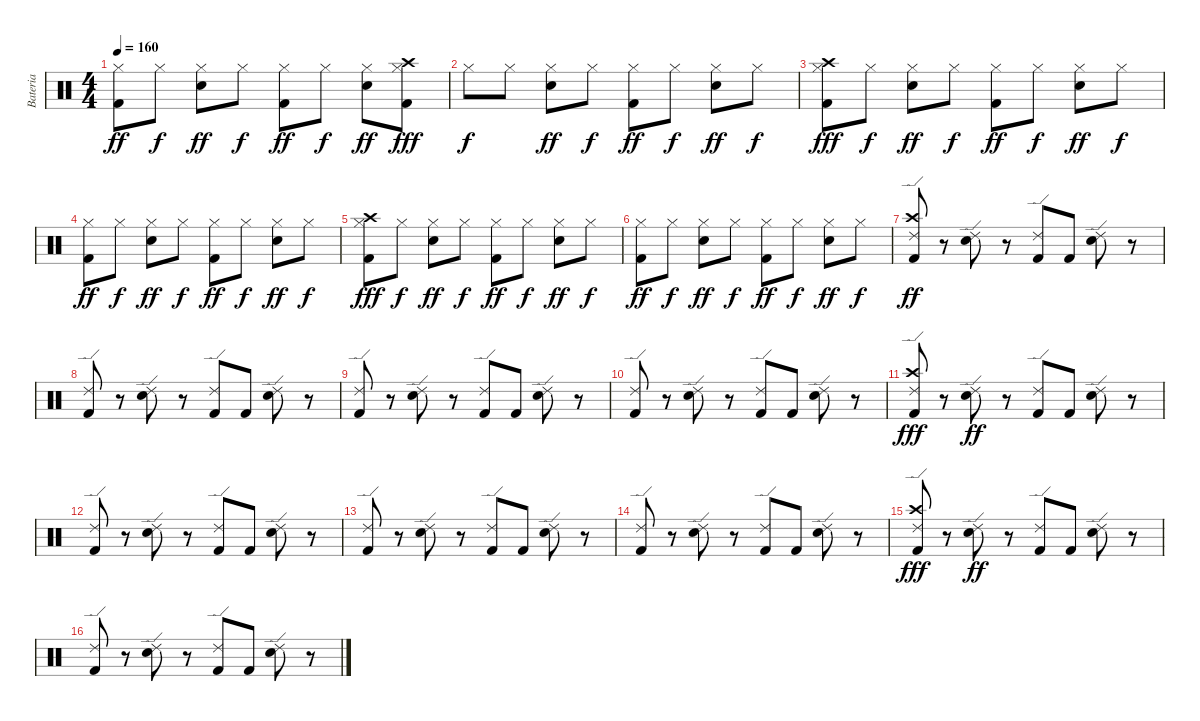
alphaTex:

\track ("Bateria" "Bateria") {instrument percussion}
\staff {score}
\articulation defaults
\ts (4 4)
\tempo 160
\clef neutral
\ks c
("Kick (hit) 2" "Hi-Hat (closed)").8{dy ff} "Hi-Hat (closed)".8{dy f} ("Hi-Hat (closed)" "Snare (hit) 2").8{dy ff} "Hi-Hat (closed)".8{dy f} ("Kick (hit) 2" "Hi-Hat (closed)").8{dy ff} "Hi-Hat (closed)".8{dy f} ("Hi-Hat (closed)" "Snare (hit) 2").8{dy ff} ("Kick (hit) 2" "Crash high (hit)" "Hi-Hat (closed)").8{dy fff} |
"Hi-Hat (closed)".8{dy f} "Hi-Hat (closed)".8 ("Hi-Hat (closed)" "Snare (hit) 2").8{dy ff} "Hi-Hat (closed)".8{dy f} ("Kick (hit) 2" "Hi-Hat (closed)").8{dy ff} "Hi-Hat (closed)".8{dy f} ("Hi-Hat (closed)" "Snare (hit) 2").8{dy ff} "Hi-Hat (closed)".8{dy f} |
("Kick (hit) 2" "Crash high (hit)" "Hi-Hat (closed)").8{dy fff} "Hi-Hat (closed)".8{dy f} ("Hi-Hat (closed)" "Snare (hit) 2").8{dy ff} "Hi-Hat (closed)".8{dy f} ("Kick (hit) 2" "Hi-Hat (closed)").8{dy ff} "Hi-Hat (closed)".8{dy f} ("Hi-Hat (closed)" "Snare (hit) 2").8{dy ff} "Hi-Hat (closed)".8{dy f} |
("Kick (hit) 2" "Hi-Hat (closed)").8{dy ff} "Hi-Hat (closed)".8{dy f} ("Hi-Hat (closed)" "Snare (hit) 2").8{dy ff} "Hi-Hat (closed)".8{dy f} ("Kick (hit) 2" "Hi-Hat (closed)").8{dy ff} "Hi-Hat (closed)".8{dy f} ("Hi-Hat (closed)" "Snare (hit) 2").8{dy ff} "Hi-Hat (closed)".8{dy f} |
("Kick (hit) 2" "Crash high (hit)" "Hi-Hat (closed)").8{dy fff} "Hi-Hat (closed)".8{dy f} ("Hi-Hat (closed)" "Snare (hit) 2").8{dy ff} "Hi-Hat (closed)".8{dy f} ("Kick (hit) 2" "Hi-Hat (closed)").8{dy ff} "Hi-Hat (closed)".8{dy f} ("Hi-Hat (closed)" "Snare (hit) 2").8{dy ff} "Hi-Hat (closed)".8{dy f} |
("Kick (hit) 2" "Hi-Hat (closed)").8{dy ff} "Hi-Hat (closed)".8{dy f} ("Hi-Hat (closed)" "Snare (hit) 2").8{dy ff} "Hi-Hat (closed)".8{dy f} ("Kick (hit) 2" "Hi-Hat (closed)").8{dy ff} "Hi-Hat (closed)".8{dy f} ("Hi-Hat (closed)" "Snare (hit) 2").8{dy ff} "Hi-Hat (closed)".8{dy f} |
("Crash high (hit)" "Ride (edge) 2" "Kick (hit) 2").8{dy ff} r.8 ("Ride (edge) 2" "Snare (hit) 2").8 r.8 ("Ride (edge) 2" "Kick (hit) 2").8 "Kick (hit) 2".8 ("Ride (edge) 2" "Snare (hit) 2").8 r.8 |
("Ride (edge) 2" "Kick (hit) 2").8 r.8 ("Ride (edge) 2" "Snare (hit) 2").8 r.8 ("Ride (edge) 2" "Kick (hit) 2").8 "Kick (hit) 2".8 ("Ride (edge) 2" "Snare (hit) 2").8 r.8 |
("Ride (edge) 2" "Kick (hit) 2").8 r.8 ("Ride (edge) 2" "Snare (hit) 2").8 r.8 ("Ride (edge) 2" "Kick (hit) 2").8 "Kick (hit) 2".8 ("Ride (edge) 2" "Snare (hit) 2").8 r.8 |
("Ride (edge) 2" "Kick (hit) 2").8 r.8 ("Ride (edge) 2" "Snare (hit) 2").8 r.8 ("Ride (edge) 2" "Kick (hit) 2").8 "Kick (hit) 2".8 ("Ride (edge) 2" "Snare (hit) 2").8 r.8 |
("Kick (hit) 2" "Ride (edge) 2" "Crash high (hit)").8{dy fff} r.8 ("Ride (edge) 2" "Snare (hit) 2").8{dy ff} r.8 ("Ride (edge) 2" "Kick (hit) 2").8 "Kick (hit) 2".8 ("Ride (edge) 2" "Snare (hit) 2").8 r.8 |
("Ride (edge) 2" "Kick (hit) 2").8 r.8 ("Ride (edge) 2" "Snare (hit) 2").8 r.8 ("Ride (edge) 2" "Kick (hit) 2").8 "Kick (hit) 2".8 ("Ride (edge) 2" "Snare (hit) 2").8 r.8 |
("Ride (edge) 2" "Kick (hit) 2").8 r.8 ("Ride (edge) 2" "Snare (hit) 2").8 r.8 ("Ride (edge) 2" "Kick (hit) 2").8 "Kick (hit) 2".8 ("Ride (edge) 2" "Snare (hit) 2").8 r.8 |
("Ride (edge) 2" "Kick (hit) 2").8 r.8 ("Ride (edge) 2" "Snare (hit) 2").8 r.8 ("Ride (edge) 2" "Kick (hit) 2").8 "Kick (hit) 2".8 ("Ride (edge) 2" "Snare (hit) 2").8 r.8 |
("Kick (hit) 2" "Ride (edge) 2" "Crash high (hit)").8{dy fff} r.8 ("Ride (edge) 2" "Snare (hit) 2").8{dy ff} r.8 ("Ride (edge) 2" "Kick (hit) 2").8 "Kick (hit) 2".8 ("Ride (edge) 2" "Snare (hit) 2").8 r.8 |
("Ride (edge) 2" "Kick (hit) 2").8 r.8 ("Ride (edge) 2" "Snare (hit) 2").8 r.8 ("Ride (edge) 2" "Kick (hit) 2").8 "Kick (hit) 2".8 ("Ride (edge) 2" "Snare (hit) 2").8 r.8
